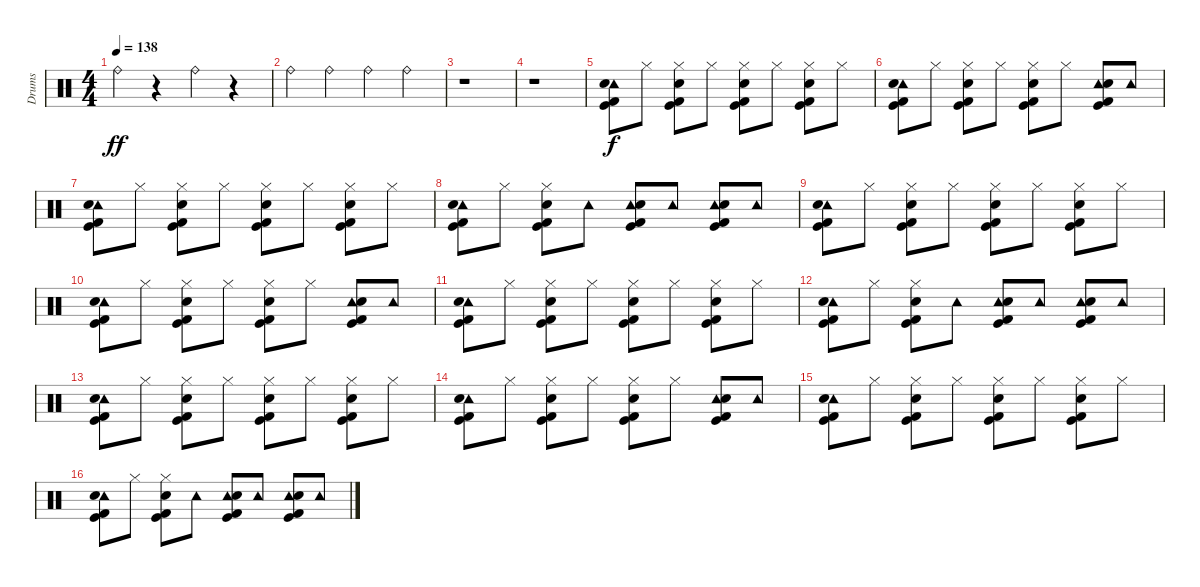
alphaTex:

\track ("Drums" "Drums") {instrument percussion}
\staff {score}
\articulation defaults
\ts (4 4)
\tempo 138
\clef neutral
\ks c "Ride (bell)".4{dy ff}
r.4 "Ride (bell)".4 r.4 |
"Ride (bell)".4 "Ride (bell)".4 "Ride (bell)".4 "Ride (bell)".4 |
r.1 |
r.1 |
("Tambourine (hit)" "Electric Snare (hit)" "Kick (hit) 2" "Kick (hit)").8{dy f} "Hi-Hat (closed)".8 ("Hi-Hat (closed)" "Electric Snare (hit)" "Kick (hit) 2" "Kick (hit)").8 "Hi-Hat (closed)".8 ("Hi-Hat (closed)" "Electric Snare (hit)" "Kick (hit) 2" "Kick (hit)").8 "Hi-Hat (closed)".8 ("Hi-Hat (closed)" "Electric Snare (hit)" "Kick (hit) 2" "Kick (hit)").8 "Hi-Hat (closed)".8 |
("Tambourine (hit)" "Electric Snare (hit)" "Kick (hit) 2" "Kick (hit)").8 "Hi-Hat (closed)".8 ("Hi-Hat (closed)" "Electric Snare (hit)" "Kick (hit) 2" "Kick (hit)").8 "Hi-Hat (closed)".8 ("Hi-Hat (closed)" "Electric Snare (hit)" "Kick (hit) 2" "Kick (hit)").8 "Hi-Hat (closed)".8 ("Tambourine (hit)" "Electric Snare (hit)" "Kick (hit) 2" "Kick (hit)").8 "Tambourine (hit)".8 |
("Tambourine (hit)" "Electric Snare (hit)" "Kick (hit) 2" "Kick (hit)").8 "Hi-Hat (closed)".8 ("Hi-Hat (closed)" "Electric Snare (hit)" "Kick (hit) 2" "Kick (hit)").8 "Hi-Hat (closed)".8 ("Hi-Hat (closed)" "Electric Snare (hit)" "Kick (hit) 2" "Kick (hit)").8 "Hi-Hat (closed)".8 ("Hi-Hat (closed)" "Electric Snare (hit)" "Kick (hit) 2" "Kick (hit)").8 "Hi-Hat (closed)".8 |
("Tambourine (hit)" "Electric Snare (hit)" "Kick (hit) 2" "Kick (hit)").8 "Hi-Hat (closed)".8 ("Hi-Hat (closed)" "Electric Snare (hit)" "Kick (hit) 2" "Kick (hit)").8 "Tambourine (hit)".8 ("Tambourine (hit)" "Electric Snare (hit)" "Kick (hit) 2" "Kick (hit)").8 "Tambourine (hit)".8 ("Tambourine (hit)" "Electric Snare (hit)" "Kick (hit) 2" "Kick (hit)").8 "Tambourine (hit)".8 |
("Tambourine (hit)" "Electric Snare (hit)" "Kick (hit) 2" "Kick (hit)").8 "Hi-Hat (closed)".8 ("Hi-Hat (closed)" "Electric Snare (hit)" "Kick (hit) 2" "Kick (hit)").8 "Hi-Hat (closed)".8 ("Hi-Hat (closed)" "Electric Snare (hit)" "Kick (hit) 2" "Kick (hit)").8 "Hi-Hat (closed)".8 ("Hi-Hat (closed)" "Electric Snare (hit)" "Kick (hit) 2" "Kick (hit)").8 "Hi-Hat (closed)".8 |
("Tambourine (hit)" "Electric Snare (hit)" "Kick (hit) 2" "Kick (hit)").8 "Hi-Hat (closed)".8 ("Hi-Hat (closed)" "Electric Snare (hit)" "Kick (hit) 2" "Kick (hit)").8 "Hi-Hat (closed)".8 ("Hi-Hat (closed)" "Electric Snare (hit)" "Kick (hit) 2" "Kick (hit)").8 "Hi-Hat (closed)".8 ("Tambourine (hit)" "Electric Snare (hit)" "Kick (hit) 2" "Kick (hit)").8 "Tambourine (hit)".8 |
("Tambourine (hit)" "Electric Snare (hit)" "Kick (hit) 2" "Kick (hit)").8 "Hi-Hat (closed)".8 ("Hi-Hat (closed)" "Electric Snare (hit)" "Kick (hit) 2" "Kick (hit)").8 "Hi-Hat (closed)".8 ("Hi-Hat (closed)" "Electric Snare (hit)" "Kick (hit) 2" "Kick (hit)").8 "Hi-Hat (closed)".8 ("Hi-Hat (closed)" "Electric Snare (hit)" "Kick (hit) 2" "Kick (hit)").8 "Hi-Hat (closed)".8 |
("Tambourine (hit)" "Electric Snare (hit)" "Kick (hit) 2" "Kick (hit)").8 "Hi-Hat (closed)".8 ("Hi-Hat (closed)" "Electric Snare (hit)" "Kick (hit) 2" "Kick (hit)").8 "Tambourine (hit)".8 ("Tambourine (hit)" "Electric Snare (hit)" "Kick (hit) 2" "Kick (hit)").8 "Tambourine (hit)".8 ("Tambourine (hit)" "Electric Snare (hit)" "Kick (hit) 2" "Kick (hit)").8 "Tambourine (hit)".8 |
("Tambourine (hit)" "Electric Snare (hit)" "Kick (hit) 2" "Kick (hit)").8 "Hi-Hat (closed)".8 ("Hi-Hat (closed)" "Electric Snare (hit)" "Kick (hit) 2" "Kick (hit)").8 "Hi-Hat (closed)".8 ("Hi-Hat (closed)" "Electric Snare (hit)" "Kick (hit) 2" "Kick (hit)").8 "Hi-Hat (closed)".8 ("Hi-Hat (closed)" "Electric Snare (hit)" "Kick (hit) 2" "Kick (hit)").8 "Hi-Hat (closed)".8 |
("Tambourine (hit)" "Electric Snare (hit)" "Kick (hit) 2" "Kick (hit)").8 "Hi-Hat (closed)".8 ("Hi-Hat (closed)" "Electric Snare (hit)" "Kick (hit) 2" "Kick (hit)").8 "Hi-Hat (closed)".8 ("Hi-Hat (closed)" "Electric Snare (hit)" "Kick (hit) 2" "Kick (hit)").8 "Hi-Hat (closed)".8 ("Tambourine (hit)" "Electric Snare (hit)" "Kick (hit) 2" "Kick (hit)").8 "Tambourine (hit)".8 |
("Tambourine (hit)" "Electric Snare (hit)" "Kick (hit) 2" "Kick (hit)").8 "Hi-Hat (closed)".8 ("Hi-Hat (closed)" "Electric Snare (hit)" "Kick (hit) 2" "Kick (hit)").8 "Hi-Hat (closed)".8 ("Hi-Hat (closed)" "Electric Snare (hit)" "Kick (hit) 2" "Kick (hit)").8 "Hi-Hat (closed)".8 ("Hi-Hat (closed)" "Electric Snare (hit)" "Kick (hit) 2" "Kick (hit)").8 "Hi-Hat (closed)".8 |
("Tambourine (hit)" "Electric Snare (hit)" "Kick (hit) 2" "Kick (hit)").8 "Hi-Hat (closed)".8 ("Hi-Hat (closed)" "Electric Snare (hit)" "Kick (hit) 2" "Kick (hit)").8 "Tambourine (hit)".8 ("Tambourine (hit)" "Electric Snare (hit)" "Kick (hit) 2" "Kick (hit)").8 "Tambourine (hit)".8 ("Tambourine (hit)" "Electric Snare (hit)" "Kick (hit) 2" "Kick (hit)").8 "Tambourine (hit)".8
